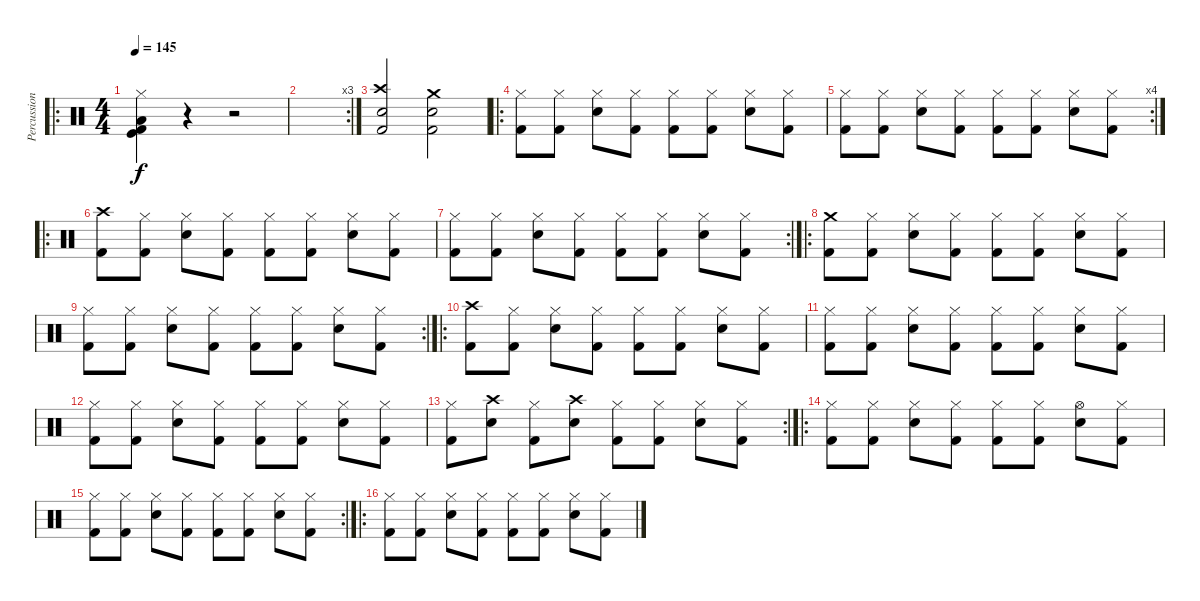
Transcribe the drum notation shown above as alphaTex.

\track ("Percussion" "Percussion") {instrument percussion}
\staff {score}
\articulation defaults
\ro
\ts (4 4)
\tempo 145
\clef neutral
\ks c
("Hi-Hat (closed)" "Low Tom (hit)" "Kick (hit)" "Kick (hit) 2").4{dy f} r.4 r.2 |
\rc 3
|
("Crash high (hit)" "Snare (hit) 2" "Kick (hit) 2").2 ("Crash medium (hit)" "Snare (hit) 2" "Kick (hit) 2").2 |
\ro
("Hi-Hat (closed)" "Kick (hit) 2").8 ("Hi-Hat (closed)" "Kick (hit) 2").8 ("Hi-Hat (closed)" "Snare (hit) 2").8 ("Hi-Hat (closed)" "Kick (hit) 2").8 ("Hi-Hat (closed)" "Kick (hit) 2").8 ("Hi-Hat (closed)" "Kick (hit) 2").8 ("Hi-Hat (closed)" "Snare (hit) 2").8 ("Hi-Hat (closed)" "Kick (hit) 2").8 |
\rc 4
("Hi-Hat (closed)" "Kick (hit) 2").8 ("Hi-Hat (closed)" "Kick (hit) 2").8 ("Hi-Hat (closed)" "Snare (hit) 2").8 ("Hi-Hat (closed)" "Kick (hit) 2").8 ("Hi-Hat (closed)" "Kick (hit) 2").8 ("Hi-Hat (closed)" "Kick (hit) 2").8 ("Hi-Hat (closed)" "Snare (hit) 2").8 ("Hi-Hat (closed)" "Kick (hit) 2").8 |
\ro
("Crash high (hit)" "Kick (hit) 2").8 ("Hi-Hat (closed)" "Kick (hit) 2").8 ("Hi-Hat (closed)" "Snare (hit) 2").8 ("Hi-Hat (closed)" "Kick (hit) 2").8 ("Hi-Hat (closed)" "Kick (hit) 2").8 ("Hi-Hat (closed)" "Kick (hit) 2").8 ("Hi-Hat (closed)" "Snare (hit) 2").8 ("Hi-Hat (closed)" "Kick (hit) 2").8 |
\rc 2
("Hi-Hat (closed)" "Kick (hit) 2").8 ("Hi-Hat (closed)" "Kick (hit) 2").8 ("Hi-Hat (closed)" "Snare (hit) 2").8 ("Hi-Hat (closed)" "Kick (hit) 2").8 ("Hi-Hat (closed)" "Kick (hit) 2").8 ("Hi-Hat (closed)" "Kick (hit) 2").8 ("Hi-Hat (closed)" "Snare (hit) 2").8 ("Hi-Hat (closed)" "Kick (hit) 2").8 |
\ro
("Crash medium (hit)" "Kick (hit) 2").8 ("Hi-Hat (closed)" "Kick (hit) 2").8 ("Hi-Hat (closed)" "Snare (hit) 2").8 ("Hi-Hat (closed)" "Kick (hit) 2").8 ("Hi-Hat (closed)" "Kick (hit) 2").8 ("Hi-Hat (closed)" "Kick (hit) 2").8 ("Hi-Hat (closed)" "Snare (hit) 2").8 ("Hi-Hat (closed)" "Kick (hit) 2").8 |
\rc 2
("Hi-Hat (closed)" "Kick (hit) 2").8 ("Hi-Hat (closed)" "Kick (hit) 2").8 ("Hi-Hat (closed)" "Snare (hit) 2").8 ("Hi-Hat (closed)" "Kick (hit) 2").8 ("Hi-Hat (closed)" "Kick (hit) 2").8 ("Hi-Hat (closed)" "Kick (hit) 2").8 ("Hi-Hat (closed)" "Snare (hit) 2").8 ("Hi-Hat (closed)" "Kick (hit) 2").8 |
\ro
("Crash high (hit)" "Kick (hit) 2").8 ("Hi-Hat (closed)" "Kick (hit) 2").8 ("Hi-Hat (closed)" "Snare (hit) 2").8 ("Hi-Hat (closed)" "Kick (hit) 2").8 ("Hi-Hat (closed)" "Kick (hit) 2").8 ("Hi-Hat (closed)" "Kick (hit) 2").8 ("Hi-Hat (closed)" "Snare (hit) 2").8 ("Hi-Hat (closed)" "Kick (hit) 2").8 |
("Hi-Hat (closed)" "Kick (hit) 2").8 ("Hi-Hat (closed)" "Kick (hit) 2").8 ("Hi-Hat (closed)" "Snare (hit) 2").8 ("Hi-Hat (closed)" "Kick (hit) 2").8 ("Hi-Hat (closed)" "Kick (hit) 2").8 ("Hi-Hat (closed)" "Kick (hit) 2").8 ("Hi-Hat (closed)" "Snare (hit) 2").8 ("Hi-Hat (closed)" "Kick (hit) 2").8 |
("Hi-Hat (closed)" "Kick (hit) 2").8 ("Hi-Hat (closed)" "Kick (hit) 2").8 ("Hi-Hat (closed)" "Snare (hit) 2").8 ("Hi-Hat (closed)" "Kick (hit) 2").8 ("Hi-Hat (closed)" "Kick (hit) 2").8 ("Hi-Hat (closed)" "Kick (hit) 2").8 ("Hi-Hat (closed)" "Snare (hit) 2").8 ("Hi-Hat (closed)" "Kick (hit) 2").8 |
\rc 2
("Hi-Hat (closed)" "Kick (hit) 2").8 ("Crash high (hit)" "Snare (hit) 2").8 ("Hi-Hat (closed)" "Kick (hit) 2").8 ("Crash high (hit)" "Snare (hit) 2").8 ("Hi-Hat (closed)" "Kick (hit) 2").8 ("Hi-Hat (closed)" "Kick (hit) 2").8 ("Hi-Hat (closed)" "Snare (hit) 2").8 ("Hi-Hat (closed)" "Kick (hit) 2").8 |
\ro
("Hi-Hat (closed)" "Kick (hit) 2").8 ("Hi-Hat (closed)" "Kick (hit) 2").8 ("Hi-Hat (closed)" "Snare (hit) 2").8 ("Hi-Hat (closed)" "Kick (hit) 2").8 ("Hi-Hat (closed)" "Kick (hit) 2").8 ("Hi-Hat (closed)" "Kick (hit) 2").8 ("Hi-Hat (open)" "Snare (hit) 2").8 ("Hi-Hat (closed)" "Kick (hit) 2").8 |
\rc 2
("Hi-Hat (closed)" "Kick (hit) 2").8 ("Hi-Hat (closed)" "Kick (hit) 2").8 ("Hi-Hat (closed)" "Snare (hit) 2").8 ("Hi-Hat (closed)" "Kick (hit) 2").8 ("Hi-Hat (closed)" "Kick (hit) 2").8 ("Hi-Hat (closed)" "Kick (hit) 2").8 ("Hi-Hat (closed)" "Snare (hit) 2").8 ("Hi-Hat (closed)" "Kick (hit) 2").8 |
\ro
("Hi-Hat (closed)" "Kick (hit) 2").8 ("Hi-Hat (closed)" "Kick (hit) 2").8 ("Hi-Hat (closed)" "Snare (hit) 2").8 ("Hi-Hat (closed)" "Kick (hit) 2").8 ("Hi-Hat (closed)" "Kick (hit) 2").8 ("Hi-Hat (closed)" "Kick (hit) 2").8 ("Hi-Hat (closed)" "Snare (hit) 2").8 ("Hi-Hat (closed)" "Kick (hit) 2").8
